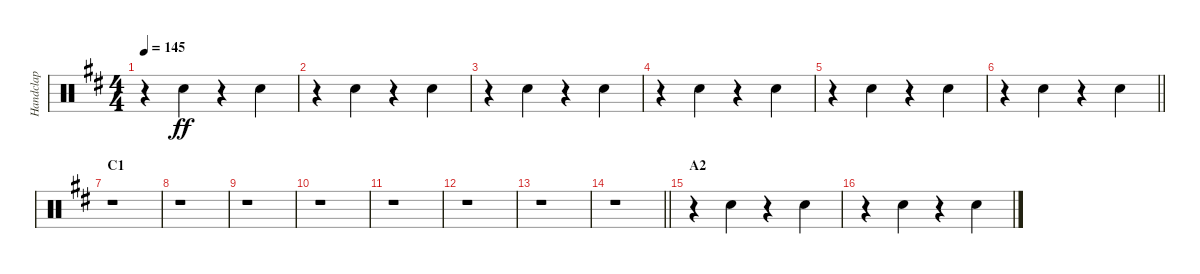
\track ("Handclap" "Handclap") {instrument percussion}
\staff {score}
\articulation defaults
\ts (4 4)
\tempo 145
\clef neutral
\ks d
r.4{dy ff} "Hand Clap (hit)".4 r.4 "Hand Clap (hit)".4 |
r.4 "Hand Clap (hit)".4 r.4 "Hand Clap (hit)".4 |
r.4 "Hand Clap (hit)".4 r.4 "Hand Clap (hit)".4 |
r.4 "Hand Clap (hit)".4 r.4 "Hand Clap (hit)".4 |
r.4 "Hand Clap (hit)".4 r.4 "Hand Clap (hit)".4 |
\barLineRight lightlight
r.4 "Hand Clap (hit)".4 r.4 "Hand Clap (hit)".4 |
\section ("" "C1")
r.1 |
r.1 |
r.1 |
r.1 |
r.1 |
r.1 |
r.1 |
\barLineRight lightlight
r.1 |
\section ("" "A2")
r.4 "Hand Clap (hit)".4 r.4 "Hand Clap (hit)".4 |
r.4 "Hand Clap (hit)".4 r.4 "Hand Clap (hit)".4
